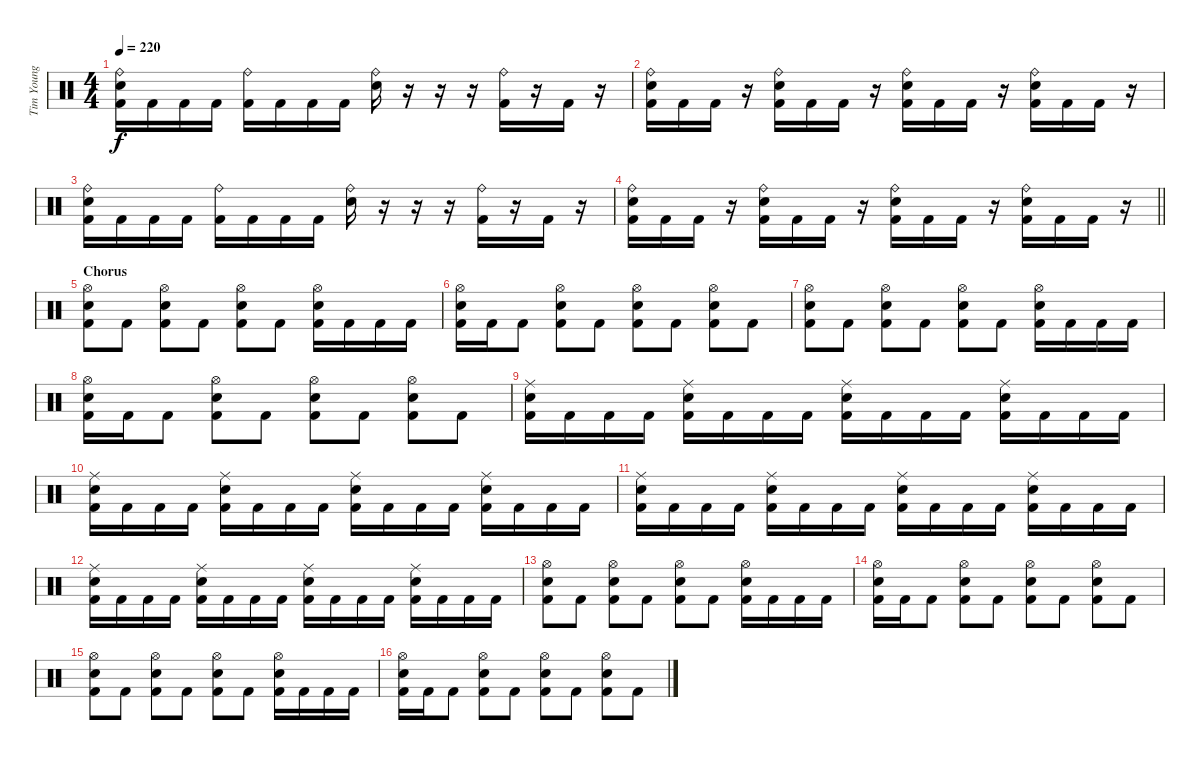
\track ("Tim Young - Drums" "Tim Young ") {instrument percussion}
\staff {score}
\articulation defaults
\ts (4 4)
\section ("" "")
\tempo 220
\clef neutral
\ks c
("Ride (bell)" "Electric Snare (hit)" "Kick (hit) 2").16{dy f} "Kick (hit) 2".16 "Kick (hit) 2".16 "Kick (hit) 2".16 ("Ride (bell)" "Kick (hit) 2").16 "Kick (hit) 2".16 "Kick (hit) 2".16 "Kick (hit) 2".16 ("Ride (bell)" "Electric Snare (hit)").16 r.16 r.16 r.16 ("Ride (bell)" "Kick (hit) 2").16 r.16 "Kick (hit) 2".16 r.16 |
("Ride (bell)" "Electric Snare (hit)" "Kick (hit) 2").16 "Kick (hit) 2".16 "Kick (hit) 2".16 r.16 ("Ride (bell)" "Electric Snare (hit)" "Kick (hit) 2").16 "Kick (hit) 2".16 "Kick (hit) 2".16 r.16 ("Ride (bell)" "Electric Snare (hit)" "Kick (hit) 2").16 "Kick (hit) 2".16 "Kick (hit) 2".16 r.16 ("Ride (bell)" "Electric Snare (hit)" "Kick (hit) 2").16 "Kick (hit) 2".16 "Kick (hit) 2".16 r.16 |
("Ride (bell)" "Electric Snare (hit)" "Kick (hit) 2").16 "Kick (hit) 2".16 "Kick (hit) 2".16 "Kick (hit) 2".16 ("Ride (bell)" "Kick (hit) 2").16 "Kick (hit) 2".16 "Kick (hit) 2".16 "Kick (hit) 2".16 ("Ride (bell)" "Electric Snare (hit)").16 r.16 r.16 r.16 ("Ride (bell)" "Kick (hit) 2").16 r.16 "Kick (hit) 2".16 r.16 |
\barLineRight lightlight
("Ride (bell)" "Electric Snare (hit)" "Kick (hit) 2").16 "Kick (hit) 2".16 "Kick (hit) 2".16 r.16 ("Ride (bell)" "Electric Snare (hit)" "Kick (hit) 2").16 "Kick (hit) 2".16 "Kick (hit) 2".16 r.16 ("Ride (bell)" "Electric Snare (hit)" "Kick (hit) 2").16 "Kick (hit) 2".16 "Kick (hit) 2".16 r.16 ("Ride (bell)" "Electric Snare (hit)" "Kick (hit) 2").16 "Kick (hit) 2".16 "Kick (hit) 2".16 r.16 |
\section ("" "Chorus")
("Hi-Hat (open)" "Electric Snare (hit)" "Kick (hit) 2").8 "Kick (hit) 2".8 ("Hi-Hat (open)" "Electric Snare (hit)" "Kick (hit) 2").8 "Kick (hit) 2".8 ("Hi-Hat (open)" "Electric Snare (hit)" "Kick (hit) 2").8 "Kick (hit) 2".8 ("Hi-Hat (open)" "Electric Snare (hit)" "Kick (hit) 2").16 "Kick (hit) 2".16 "Kick (hit) 2".16 "Kick (hit) 2".16 |
("Hi-Hat (open)" "Electric Snare (hit)" "Kick (hit) 2").16 "Kick (hit) 2".16 "Kick (hit) 2".8 ("Hi-Hat (open)" "Electric Snare (hit)" "Kick (hit) 2").8 "Kick (hit) 2".8 ("Hi-Hat (open)" "Electric Snare (hit)" "Kick (hit) 2").8 "Kick (hit) 2".8 ("Hi-Hat (open)" "Electric Snare (hit)" "Kick (hit) 2").8 "Kick (hit) 2".8 |
("Hi-Hat (open)" "Electric Snare (hit)" "Kick (hit) 2").8 "Kick (hit) 2".8 ("Hi-Hat (open)" "Electric Snare (hit)" "Kick (hit) 2").8 "Kick (hit) 2".8 ("Hi-Hat (open)" "Electric Snare (hit)" "Kick (hit) 2").8 "Kick (hit) 2".8 ("Hi-Hat (open)" "Electric Snare (hit)" "Kick (hit) 2").16 "Kick (hit) 2".16 "Kick (hit) 2".16 "Kick (hit) 2".16 |
("Hi-Hat (open)" "Electric Snare (hit)" "Kick (hit) 2").16 "Kick (hit) 2".16 "Kick (hit) 2".8 ("Hi-Hat (open)" "Electric Snare (hit)" "Kick (hit) 2").8 "Kick (hit) 2".8 ("Hi-Hat (open)" "Electric Snare (hit)" "Kick (hit) 2").8 "Kick (hit) 2".8 ("Hi-Hat (open)" "Electric Snare (hit)" "Kick (hit) 2").8 "Kick (hit) 2".8 |
("Ride (middle)" "Electric Snare (hit)" "Kick (hit) 2").16 "Kick (hit) 2".16 "Kick (hit) 2".16 "Kick (hit) 2".16 ("Ride (middle)" "Electric Snare (hit)" "Kick (hit) 2").16 "Kick (hit) 2".16 "Kick (hit) 2".16 "Kick (hit) 2".16 ("Ride (middle)" "Electric Snare (hit)" "Kick (hit) 2").16 "Kick (hit) 2".16 "Kick (hit) 2".16 "Kick (hit) 2".16 ("Ride (middle)" "Electric Snare (hit)" "Kick (hit) 2").16 "Kick (hit) 2".16 "Kick (hit) 2".16 "Kick (hit) 2".16 |
("Ride (middle)" "Electric Snare (hit)" "Kick (hit) 2").16 "Kick (hit) 2".16 "Kick (hit) 2".16 "Kick (hit) 2".16 ("Ride (middle)" "Electric Snare (hit)" "Kick (hit) 2").16 "Kick (hit) 2".16 "Kick (hit) 2".16 "Kick (hit) 2".16 ("Ride (middle)" "Electric Snare (hit)" "Kick (hit) 2").16 "Kick (hit) 2".16 "Kick (hit) 2".16 "Kick (hit) 2".16 ("Ride (middle)" "Electric Snare (hit)" "Kick (hit) 2").16 "Kick (hit) 2".16 "Kick (hit) 2".16 "Kick (hit) 2".16 |
("Ride (middle)" "Electric Snare (hit)" "Kick (hit) 2").16 "Kick (hit) 2".16 "Kick (hit) 2".16 "Kick (hit) 2".16 ("Ride (middle)" "Electric Snare (hit)" "Kick (hit) 2").16 "Kick (hit) 2".16 "Kick (hit) 2".16 "Kick (hit) 2".16 ("Ride (middle)" "Electric Snare (hit)" "Kick (hit) 2").16 "Kick (hit) 2".16 "Kick (hit) 2".16 "Kick (hit) 2".16 ("Ride (middle)" "Electric Snare (hit)" "Kick (hit) 2").16 "Kick (hit) 2".16 "Kick (hit) 2".16 "Kick (hit) 2".16 |
("Ride (middle)" "Electric Snare (hit)" "Kick (hit) 2").16 "Kick (hit) 2".16 "Kick (hit) 2".16 "Kick (hit) 2".16 ("Ride (middle)" "Electric Snare (hit)" "Kick (hit) 2").16 "Kick (hit) 2".16 "Kick (hit) 2".16 "Kick (hit) 2".16 ("Ride (middle)" "Electric Snare (hit)" "Kick (hit) 2").16 "Kick (hit) 2".16 "Kick (hit) 2".16 "Kick (hit) 2".16 ("Ride (middle)" "Electric Snare (hit)" "Kick (hit) 2").16 "Kick (hit) 2".16 "Kick (hit) 2".16 "Kick (hit) 2".16 |
("Hi-Hat (open)" "Electric Snare (hit)" "Kick (hit) 2").8 "Kick (hit) 2".8 ("Hi-Hat (open)" "Electric Snare (hit)" "Kick (hit) 2").8 "Kick (hit) 2".8 ("Hi-Hat (open)" "Electric Snare (hit)" "Kick (hit) 2").8 "Kick (hit) 2".8 ("Hi-Hat (open)" "Electric Snare (hit)" "Kick (hit) 2").16 "Kick (hit) 2".16 "Kick (hit) 2".16 "Kick (hit) 2".16 |
("Hi-Hat (open)" "Electric Snare (hit)" "Kick (hit) 2").16 "Kick (hit) 2".16 "Kick (hit) 2".8 ("Hi-Hat (open)" "Electric Snare (hit)" "Kick (hit) 2").8 "Kick (hit) 2".8 ("Hi-Hat (open)" "Electric Snare (hit)" "Kick (hit) 2").8 "Kick (hit) 2".8 ("Hi-Hat (open)" "Electric Snare (hit)" "Kick (hit) 2").8 "Kick (hit) 2".8 |
("Hi-Hat (open)" "Electric Snare (hit)" "Kick (hit) 2").8 "Kick (hit) 2".8 ("Hi-Hat (open)" "Electric Snare (hit)" "Kick (hit) 2").8 "Kick (hit) 2".8 ("Hi-Hat (open)" "Electric Snare (hit)" "Kick (hit) 2").8 "Kick (hit) 2".8 ("Hi-Hat (open)" "Electric Snare (hit)" "Kick (hit) 2").16 "Kick (hit) 2".16 "Kick (hit) 2".16 "Kick (hit) 2".16 |
("Hi-Hat (open)" "Electric Snare (hit)" "Kick (hit) 2").16 "Kick (hit) 2".16 "Kick (hit) 2".8 ("Hi-Hat (open)" "Electric Snare (hit)" "Kick (hit) 2").8 "Kick (hit) 2".8 ("Hi-Hat (open)" "Electric Snare (hit)" "Kick (hit) 2").8 "Kick (hit) 2".8 ("Hi-Hat (open)" "Electric Snare (hit)" "Kick (hit) 2").8 "Kick (hit) 2".8
